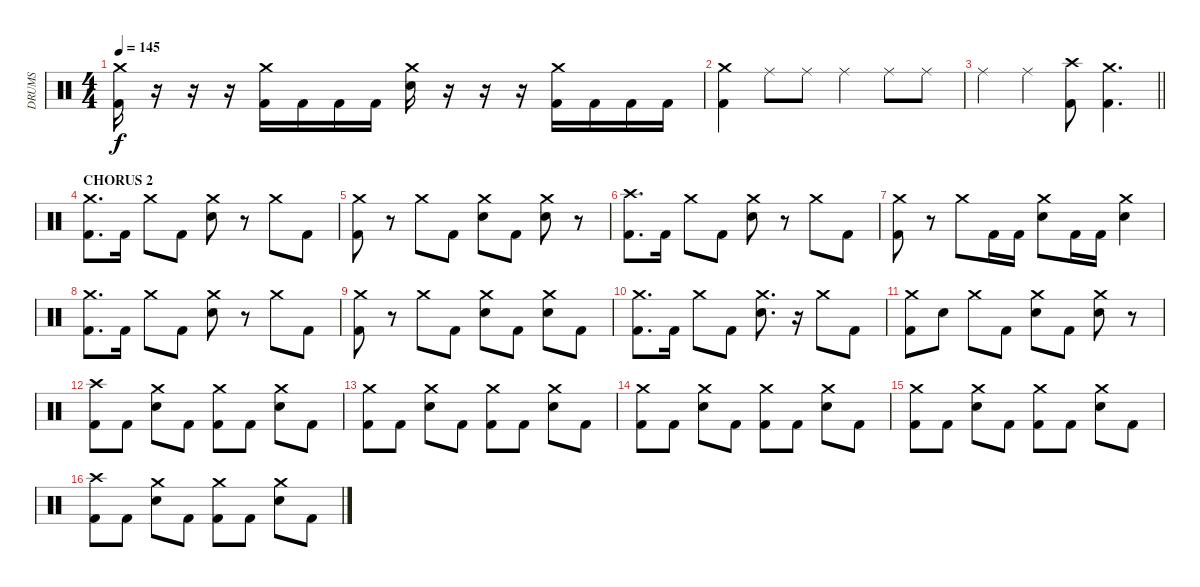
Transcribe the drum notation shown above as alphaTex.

\track ("DRUMS" "DRUMS") {instrument percussion}
\staff {score}
\articulation defaults
\ts (4 4)
\tempo 145
\clef neutral
\ks c
("Crash medium (hit)" "Kick (hit) 2").16{dy f} r.16 r.16 r.16 ("Crash medium (hit)" "Kick (hit) 2").16 "Kick (hit) 2".16 "Kick (hit) 2".16 "Kick (hit) 2".16 ("Crash medium (hit)" "Electric Snare (hit)").16 r.16 r.16 r.16 ("Crash medium (hit)" "Kick (hit) 2").16 "Kick (hit) 2".16 "Kick (hit) 2".16 "Kick (hit) 2".16 |
("Crash medium (hit)" "Kick (hit) 2").4 "Ride (middle)".8 "Ride (middle)".8 "Ride (middle)".4 "Ride (middle)".8 "Ride (middle)".8 |
\barLineRight lightlight "Ride (middle)".4 "Ride (middle)".4
("Crash high (hit)" "Kick (hit) 2").8 ("Crash medium (hit)" "Kick (hit) 2").4{d} |
\section ("" "CHORUS 2")
("Crash medium (hit)" "Kick (hit) 2").8{d} "Kick (hit) 2".16 "Crash medium (hit)".8 "Kick (hit) 2".8 ("Crash medium (hit)" "Electric Snare (hit)").8 r.8 "Crash medium (hit)".8 "Kick (hit) 2".8 |
("Crash medium (hit)" "Kick (hit) 2").8 r.8 "Crash medium (hit)".8 "Kick (hit) 2".8 ("Crash medium (hit)" "Electric Snare (hit)").8 "Kick (hit) 2".8 ("Crash medium (hit)" "Electric Snare (hit)").8 r.8 |
("Crash high (hit)" "Kick (hit) 2").8{d} "Kick (hit) 2".16 "Crash medium (hit)".8 "Kick (hit) 2".8 ("Crash medium (hit)" "Electric Snare (hit)").8 r.8 "Crash medium (hit)".8 "Kick (hit) 2".8 |
("Crash medium (hit)" "Kick (hit) 2").8 r.8 "Crash medium (hit)".8 "Kick (hit) 2".16 "Kick (hit) 2".16 ("Crash medium (hit)" "Electric Snare (hit)").8 "Kick (hit) 2".16 "Kick (hit) 2".16 ("Crash medium (hit)" "Electric Snare (hit)").4 |
("Crash medium (hit)" "Kick (hit) 2").8{d} "Kick (hit) 2".16 "Crash medium (hit)".8 "Kick (hit) 2".8 ("Crash medium (hit)" "Electric Snare (hit)").8 r.8 "Crash medium (hit)".8 "Kick (hit) 2".8 |
("Crash medium (hit)" "Kick (hit) 2").8 r.8 "Crash medium (hit)".8 "Kick (hit) 2".8 ("Crash medium (hit)" "Electric Snare (hit)").8 "Kick (hit) 2".8 ("Crash medium (hit)" "Electric Snare (hit)").8 "Kick (hit) 2".8 |
("Crash medium (hit)" "Kick (hit) 2").8{d} "Kick (hit) 2".16 "Crash medium (hit)".8 "Kick (hit) 2".8 ("Crash medium (hit)" "Electric Snare (hit)").8{d} r.16 "Crash medium (hit)".8 "Kick (hit) 2".8 |
("Crash medium (hit)" "Kick (hit) 2").8 "Electric Snare (hit)".8 "Crash medium (hit)".8 "Kick (hit) 2".8 ("Crash medium (hit)" "Electric Snare (hit)").8 "Kick (hit) 2".8 ("Crash medium (hit)" "Electric Snare (hit)").8 r.8 |
("Crash high (hit)" "Kick (hit) 2").8 "Kick (hit) 2".8 ("Crash medium (hit)" "Electric Snare (hit)").8 "Kick (hit) 2".8 ("Crash medium (hit)" "Kick (hit) 2").8 "Kick (hit) 2".8 ("Crash medium (hit)" "Electric Snare (hit)").8 "Kick (hit) 2".8 |
("Crash medium (hit)" "Kick (hit) 2").8 "Kick (hit) 2".8 ("Crash medium (hit)" "Electric Snare (hit)").8 "Kick (hit) 2".8 ("Crash medium (hit)" "Kick (hit) 2").8 "Kick (hit) 2".8 ("Crash medium (hit)" "Electric Snare (hit)").8 "Kick (hit) 2".8 |
("Crash medium (hit)" "Kick (hit) 2").8 "Kick (hit) 2".8 ("Crash medium (hit)" "Electric Snare (hit)").8 "Kick (hit) 2".8 ("Crash medium (hit)" "Kick (hit) 2").8 "Kick (hit) 2".8 ("Crash medium (hit)" "Electric Snare (hit)").8 "Kick (hit) 2".8 |
("Crash medium (hit)" "Kick (hit) 2").8 "Kick (hit) 2".8 ("Crash medium (hit)" "Electric Snare (hit)").8 "Kick (hit) 2".8 ("Crash medium (hit)" "Kick (hit) 2").8 "Kick (hit) 2".8 ("Crash medium (hit)" "Electric Snare (hit)").8 "Kick (hit) 2".8 |
("Crash high (hit)" "Kick (hit) 2").8 "Kick (hit) 2".8 ("Crash medium (hit)" "Electric Snare (hit)").8 "Kick (hit) 2".8 ("Crash medium (hit)" "Kick (hit) 2").8 "Kick (hit) 2".8 ("Crash medium (hit)" "Electric Snare (hit)").8 "Kick (hit) 2".8
